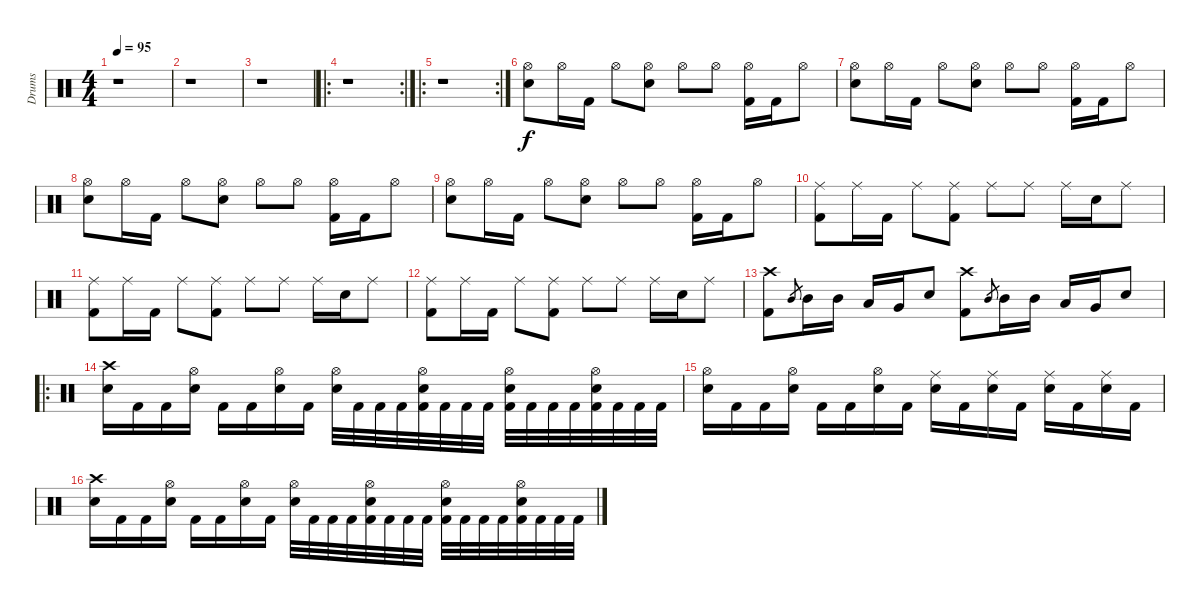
\track ("Drums" "Drums") {instrument percussion}
\staff {score}
\articulation defaults
\ts (4 4)
\tempo 95
\clef neutral
\ks c
r.1{dy f} |
r.1 |
r.1 |
\ro
\rc 2
r.1 |
\ro
\rc 2
r.1 |
("Hi-Hat (open)" "Electric Snare (hit)").8{volume 13} "Hi-Hat (open)".16 "Kick (hit) 2".16 "Hi-Hat (open)".8 ("Hi-Hat (open)" "Electric Snare (hit)").8 "Hi-Hat (open)".8 "Hi-Hat (open)".8 ("Hi-Hat (open)" "Kick (hit) 2").16 "Kick (hit) 2".16 "Hi-Hat (open)".8 |
("Hi-Hat (open)" "Electric Snare (hit)").8 "Hi-Hat (open)".16 "Kick (hit) 2".16 "Hi-Hat (open)".8 ("Hi-Hat (open)" "Electric Snare (hit)").8 "Hi-Hat (open)".8 "Hi-Hat (open)".8 ("Hi-Hat (open)" "Kick (hit) 2").16 "Kick (hit) 2".16 "Hi-Hat (open)".8 |
("Hi-Hat (open)" "Electric Snare (hit)").8 "Hi-Hat (open)".16 "Kick (hit) 2".16 "Hi-Hat (open)".8 ("Hi-Hat (open)" "Electric Snare (hit)").8 "Hi-Hat (open)".8 "Hi-Hat (open)".8 ("Hi-Hat (open)" "Kick (hit) 2").16 "Kick (hit) 2".16 "Hi-Hat (open)".8 |
("Hi-Hat (open)" "Electric Snare (hit)").8 "Hi-Hat (open)".16 "Kick (hit) 2".16 "Hi-Hat (open)".8 ("Hi-Hat (open)" "Electric Snare (hit)").8 "Hi-Hat (open)".8 "Hi-Hat (open)".8 ("Hi-Hat (open)" "Kick (hit) 2").16 "Kick (hit) 2".16 "Hi-Hat (open)".8 |
("Ride (middle)" "Kick (hit) 2").8 "Ride (middle)".16 "Kick (hit) 2".16 "Ride (middle)".8 ("Ride (middle)" "Kick (hit) 2").8 "Ride (middle)".8 "Ride (middle)".8 "Ride (middle)".16 "Electric Snare (hit)".16 "Ride (middle)".8 |
("Ride (middle)" "Kick (hit) 2").8 "Ride (middle)".16 "Kick (hit) 2".16 "Ride (middle)".8 ("Ride (middle)" "Kick (hit) 2").8 "Ride (middle)".8 "Ride (middle)".8 "Ride (middle)".16 "Electric Snare (hit)".16 "Ride (middle)".8 |
("Ride (middle)" "Kick (hit) 2").8 "Ride (middle)".16 "Kick (hit) 2".16 "Ride (middle)".8 ("Ride (middle)" "Kick (hit) 2").8 "Ride (middle)".8 "Ride (middle)".8 "Ride (middle)".16 "Electric Snare (hit)".16 "Ride (middle)".8 |
("Crash high (hit)" "Kick (hit) 2").8 "Mid Tom (hit)".8{gr} "Mid Tom (hit)".16 "Mid Tom (hit)".16 "Low Tom (hit)".16 "Very Low Tom (hit)".16 "Electric Snare (hit)".8 ("Crash high (hit)" "Kick (hit) 2").8 "Mid Tom (hit)".8{gr} "Mid Tom (hit)".16 "Mid Tom (hit)".16 "Low Tom (hit)".16 "Very Low Tom (hit)".16 "Electric Snare (hit)".8 |
\ro
("Crash high (hit)" "Electric Snare (hit)").16 "Kick (hit) 2".16 "Kick (hit) 2".16 ("Hi-Hat (open)" "Electric Snare (hit)").16 "Kick (hit) 2".16 "Kick (hit) 2".16 ("Hi-Hat (open)" "Electric Snare (hit)").16 "Kick (hit) 2".16 ("Hi-Hat (open)" "Electric Snare (hit)").32 "Kick (hit) 2".32 "Kick (hit) 2".32 "Kick (hit) 2".32 ("Hi-Hat (open)" "Electric Snare (hit)" "Kick (hit) 2").32 "Kick (hit) 2".32 "Kick (hit) 2".32 "Kick (hit) 2".32 ("Hi-Hat (open)" "Electric Snare (hit)" "Kick (hit) 2").32 "Kick (hit) 2".32 "Kick (hit) 2".32 "Kick (hit) 2".32 ("Hi-Hat (open)" "Electric Snare (hit)" "Kick (hit) 2").32 "Kick (hit) 2".32 "Kick (hit) 2".32 "Kick (hit) 2".32 |
("Hi-Hat (open)" "Electric Snare (hit)").16 "Kick (hit) 2".16 "Kick (hit) 2".16 ("Hi-Hat (open)" "Electric Snare (hit)").16 "Kick (hit) 2".16 "Kick (hit) 2".16 ("Hi-Hat (open)" "Electric Snare (hit)").16 "Kick (hit) 2".16 ("Ride (middle)" "Electric Snare (hit)").16 "Kick (hit) 2".16 ("Ride (middle)" "Electric Snare (hit)").16 "Kick (hit) 2".16 ("Ride (middle)" "Electric Snare (hit)").16 "Kick (hit) 2".16 ("Ride (middle)" "Electric Snare (hit)").16 "Kick (hit) 2".16 |
("Crash high (hit)" "Electric Snare (hit)").16 "Kick (hit) 2".16 "Kick (hit) 2".16 ("Hi-Hat (open)" "Electric Snare (hit)").16 "Kick (hit) 2".16 "Kick (hit) 2".16 ("Hi-Hat (open)" "Electric Snare (hit)").16 "Kick (hit) 2".16 ("Hi-Hat (open)" "Electric Snare (hit)").32 "Kick (hit) 2".32 "Kick (hit) 2".32 "Kick (hit) 2".32 ("Hi-Hat (open)" "Electric Snare (hit)" "Kick (hit) 2").32 "Kick (hit) 2".32 "Kick (hit) 2".32 "Kick (hit) 2".32 ("Hi-Hat (open)" "Electric Snare (hit)" "Kick (hit) 2").32 "Kick (hit) 2".32 "Kick (hit) 2".32 "Kick (hit) 2".32 ("Hi-Hat (open)" "Electric Snare (hit)" "Kick (hit) 2").32 "Kick (hit) 2".32 "Kick (hit) 2".32 "Kick (hit) 2".32
